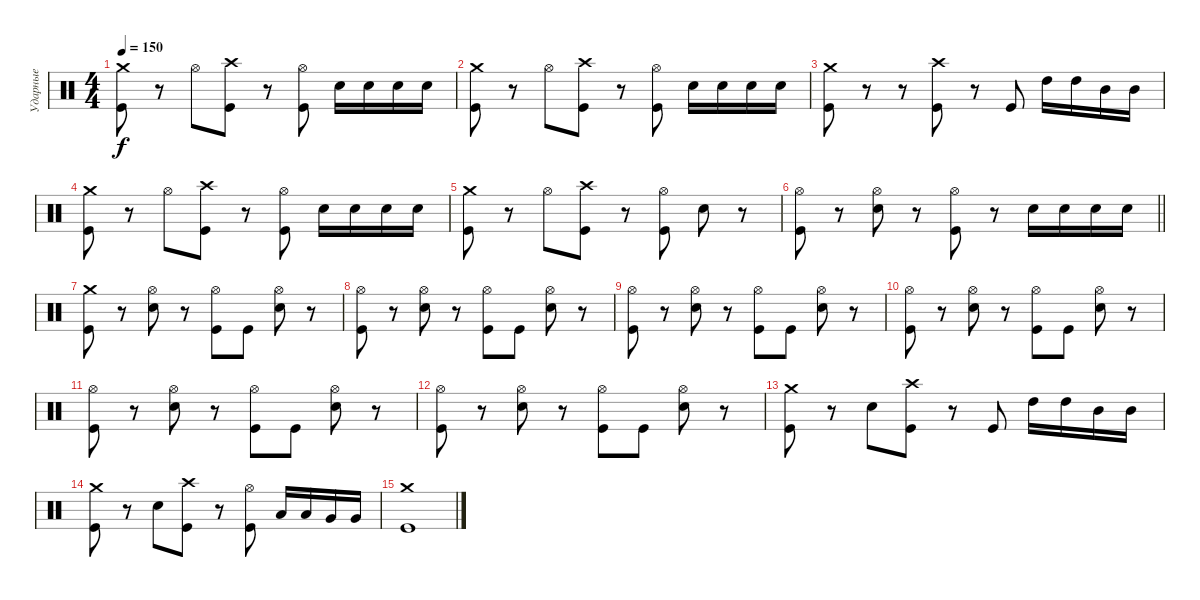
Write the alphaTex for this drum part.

\track ("Ударные" "Ударные") {instrument percussion}
\staff {score}
\articulation defaults
\ts (4 4)
\tempo 150
\clef neutral
\ks c
("Crash medium (hit)" "Kick (hit)").8{dy f} r.8 "Hi-Hat (open)".8 ("Crash high (hit)" "Kick (hit)").8 r.8 ("Hi-Hat (open)" "Kick (hit)").8 "Electric Snare (hit)".16 "Electric Snare (hit)".16 "Electric Snare (hit)".16 "Electric Snare (hit)".16 |
("Crash medium (hit)" "Kick (hit)").8 r.8 "Hi-Hat (open)".8 ("Crash high (hit)" "Kick (hit)").8 r.8 ("Hi-Hat (open)" "Kick (hit)").8 "Electric Snare (hit)".16 "Electric Snare (hit)".16 "Electric Snare (hit)".16 "Electric Snare (hit)".16 |
("Crash medium (hit)" "Kick (hit)").8 r.8 r.8 ("Crash high (hit)" "Kick (hit)").8 r.8 "Kick (hit)".8 "High Tom (hit)".16 "High Tom (hit)".16 "Mid Tom (hit)".16 "Mid Tom (hit)".16 |
("Crash medium (hit)" "Kick (hit)").8 r.8 "Hi-Hat (open)".8 ("Crash high (hit)" "Kick (hit)").8 r.8 ("Hi-Hat (open)" "Kick (hit)").8 "Electric Snare (hit)".16 "Electric Snare (hit)".16 "Electric Snare (hit)".16 "Electric Snare (hit)".16 |
("Crash medium (hit)" "Kick (hit)").8 r.8 "Hi-Hat (open)".8 ("Crash high (hit)" "Kick (hit)").8 r.8 ("Hi-Hat (open)" "Kick (hit)").8 "Electric Snare (hit)".8 r.8 |
\barLineRight lightlight
("Hi-Hat (open)" "Kick (hit)").8 r.8 ("Hi-Hat (open)" "Electric Snare (hit)").8 r.8 ("Hi-Hat (open)" "Kick (hit)").8 r.8 "Electric Snare (hit)".16 "Electric Snare (hit)".16 "Electric Snare (hit)".16 "Electric Snare (hit)".16 |
\section ("" " ")
("Crash medium (hit)" "Kick (hit)").8 r.8 ("Hi-Hat (open)" "Electric Snare (hit)").8 r.8 ("Hi-Hat (open)" "Kick (hit)").8 "Kick (hit)".8 ("Hi-Hat (open)" "Electric Snare (hit)").8 r.8 |
("Hi-Hat (open)" "Kick (hit)").8 r.8 ("Hi-Hat (open)" "Electric Snare (hit)").8 r.8 ("Hi-Hat (open)" "Kick (hit)").8 "Kick (hit)".8 ("Hi-Hat (open)" "Electric Snare (hit)").8 r.8 |
("Hi-Hat (open)" "Kick (hit)").8 r.8 ("Hi-Hat (open)" "Electric Snare (hit)").8 r.8 ("Hi-Hat (open)" "Kick (hit)").8 "Kick (hit)".8 ("Hi-Hat (open)" "Electric Snare (hit)").8 r.8 |
("Hi-Hat (open)" "Kick (hit)").8 r.8 ("Hi-Hat (open)" "Electric Snare (hit)").8 r.8 ("Hi-Hat (open)" "Kick (hit)").8 "Kick (hit)".8 ("Hi-Hat (open)" "Electric Snare (hit)").8 r.8 |
("Hi-Hat (open)" "Kick (hit)").8 r.8 ("Hi-Hat (open)" "Electric Snare (hit)").8 r.8 ("Hi-Hat (open)" "Kick (hit)").8 "Kick (hit)".8 ("Hi-Hat (open)" "Electric Snare (hit)").8 r.8 |
("Hi-Hat (open)" "Kick (hit)").8 r.8 ("Hi-Hat (open)" "Electric Snare (hit)").8 r.8 ("Hi-Hat (open)" "Kick (hit)").8 "Kick (hit)".8 ("Hi-Hat (open)" "Electric Snare (hit)").8 r.8 |
("Crash medium (hit)" "Kick (hit)").8 r.8 "Electric Snare (hit)".8 ("Crash high (hit)" "Kick (hit)").8 r.8 "Kick (hit)".8 "High Tom (hit)".16 "High Tom (hit)".16 "Mid Tom (hit)".16 "Mid Tom (hit)".16 |
("Crash medium (hit)" "Kick (hit)").8 r.8 "Electric Snare (hit)".8 ("Crash high (hit)" "Kick (hit)").8 r.8 ("Hi-Hat (open)" "Kick (hit)").8 "Low Tom (hit)".16 "Low Tom (hit)".16 "Very Low Tom (hit)".16 "Very Low Tom (hit)".16 |
("Crash medium (hit)" "Kick (hit)").1
